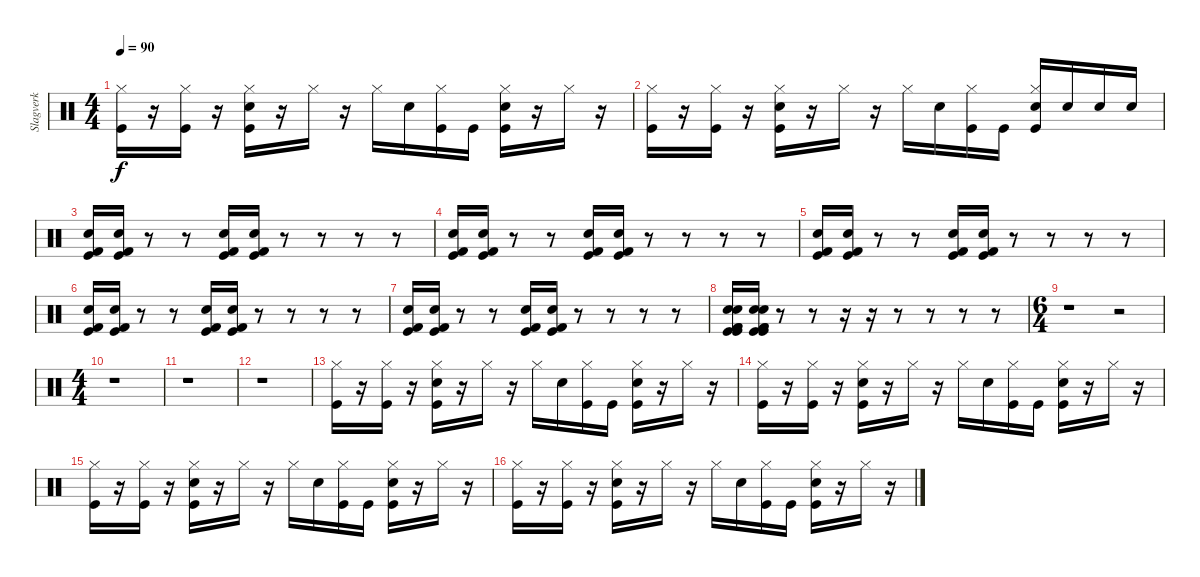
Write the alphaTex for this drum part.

\track ("Slagverk" "Slagverk") {instrument percussion}
\staff {score}
\articulation defaults
\ts (4 4)
\tempo 90
\clef neutral
\ks c
("Kick (hit)" "Hi-Hat (closed)").16{dy f} r.16 ("Kick (hit)" "Hi-Hat (closed)").16 r.16 ("Kick (hit)" "Hi-Hat (closed)" "Snare (hit) 2").16 r.16 "Hi-Hat (closed)".16 r.16 "Hi-Hat (closed)".16 "Snare (hit) 2".16 ("Kick (hit)" "Hi-Hat (closed)").16 "Kick (hit)".16 ("Kick (hit)" "Hi-Hat (closed)" "Snare (hit) 2").16 r.16 "Hi-Hat (closed)".16 r.16 |
("Kick (hit)" "Hi-Hat (closed)").16 r.16 ("Kick (hit)" "Hi-Hat (closed)").16 r.16 ("Kick (hit)" "Hi-Hat (closed)" "Snare (hit) 2").16 r.16 "Hi-Hat (closed)".16 r.16 "Hi-Hat (closed)".16 "Snare (hit) 2".16 ("Kick (hit)" "Hi-Hat (closed)").16 "Kick (hit)".16 ("Kick (hit)" "Hi-Hat (closed)" "Snare (hit) 2").16 "Snare (hit) 2".16 "Snare (hit) 2".16 "Snare (hit) 2".16 |
("Snare (hit) 2" "Kick (hit)" "Kick (hit) 2").16 ("Snare (hit) 2" "Kick (hit)" "Kick (hit) 2").16 r.8 r.8 ("Snare (hit) 2" "Kick (hit)" "Kick (hit) 2").16 ("Snare (hit) 2" "Kick (hit)" "Kick (hit) 2").16 r.8 r.8 r.8 r.8 |
("Snare (hit) 2" "Kick (hit)" "Kick (hit) 2").16 ("Snare (hit) 2" "Kick (hit)" "Kick (hit) 2").16 r.8 r.8 ("Snare (hit) 2" "Kick (hit)" "Kick (hit) 2").16 ("Snare (hit) 2" "Kick (hit)" "Kick (hit) 2").16 r.8 r.8 r.8 r.8 |
("Snare (hit) 2" "Kick (hit)" "Kick (hit) 2").16 ("Snare (hit) 2" "Kick (hit)" "Kick (hit) 2").16 r.8 r.8 ("Snare (hit) 2" "Kick (hit)" "Kick (hit) 2").16 ("Snare (hit) 2" "Kick (hit)" "Kick (hit) 2").16 r.8 r.8 r.8 r.8 |
("Snare (hit) 2" "Kick (hit)" "Kick (hit) 2").16 ("Snare (hit) 2" "Kick (hit)" "Kick (hit) 2").16 r.8 r.8 ("Snare (hit) 2" "Kick (hit)" "Kick (hit) 2").16 ("Snare (hit) 2" "Kick (hit)" "Kick (hit) 2").16 r.8 r.8 r.8 r.8 |
("Snare (hit) 2" "Kick (hit)" "Kick (hit) 2").16 ("Snare (hit) 2" "Kick (hit)" "Kick (hit) 2").16 r.8 r.8 ("Snare (hit) 2" "Kick (hit)" "Kick (hit) 2").16 ("Snare (hit) 2" "Kick (hit)" "Kick (hit) 2").16 r.8 r.8 r.8 r.8 |
("Snare (hit) 2" "Kick (hit)" "Kick (hit) 2" "Snare (hit) 2" "Kick (hit)" "Kick (hit) 2").16 ("Snare (hit) 2" "Kick (hit)" "Kick (hit) 2" "Snare (hit) 2" "Kick (hit)" "Kick (hit) 2").16 r.8 r.8 r.16 r.16 r.8 r.8 r.8 r.8 |
\ts (6 4)
r.1 r.2 |
\ts (4 4)
r.1 |
r.1 |
r.1 |
("Kick (hit)" "Hi-Hat (closed)").16 r.16 ("Kick (hit)" "Hi-Hat (closed)").16 r.16 ("Kick (hit)" "Hi-Hat (closed)" "Snare (hit) 2").16 r.16 "Hi-Hat (closed)".16 r.16 "Hi-Hat (closed)".16 "Snare (hit) 2".16 ("Kick (hit)" "Hi-Hat (closed)").16 "Kick (hit)".16 ("Kick (hit)" "Hi-Hat (closed)" "Snare (hit) 2").16 r.16 "Hi-Hat (closed)".16 r.16 |
("Kick (hit)" "Hi-Hat (closed)").16 r.16 ("Kick (hit)" "Hi-Hat (closed)").16 r.16 ("Kick (hit)" "Hi-Hat (closed)" "Snare (hit) 2").16 r.16 "Hi-Hat (closed)".16 r.16 "Hi-Hat (closed)".16 "Snare (hit) 2".16 ("Kick (hit)" "Hi-Hat (closed)").16 "Kick (hit)".16 ("Kick (hit)" "Hi-Hat (closed)" "Snare (hit) 2").16 r.16 "Hi-Hat (closed)".16 r.16 |
("Kick (hit)" "Hi-Hat (closed)").16 r.16 ("Kick (hit)" "Hi-Hat (closed)").16 r.16 ("Kick (hit)" "Hi-Hat (closed)" "Snare (hit) 2").16 r.16 "Hi-Hat (closed)".16 r.16 "Hi-Hat (closed)".16 "Snare (hit) 2".16 ("Kick (hit)" "Hi-Hat (closed)").16 "Kick (hit)".16 ("Kick (hit)" "Hi-Hat (closed)" "Snare (hit) 2").16 r.16 "Hi-Hat (closed)".16 r.16 |
("Kick (hit)" "Hi-Hat (closed)").16 r.16 ("Kick (hit)" "Hi-Hat (closed)").16 r.16 ("Kick (hit)" "Hi-Hat (closed)" "Snare (hit) 2").16 r.16 "Hi-Hat (closed)".16 r.16 "Hi-Hat (closed)".16 "Snare (hit) 2".16 ("Kick (hit)" "Hi-Hat (closed)").16 "Kick (hit)".16 ("Kick (hit)" "Hi-Hat (closed)" "Snare (hit) 2").16 r.16 "Hi-Hat (closed)".16 r.16
